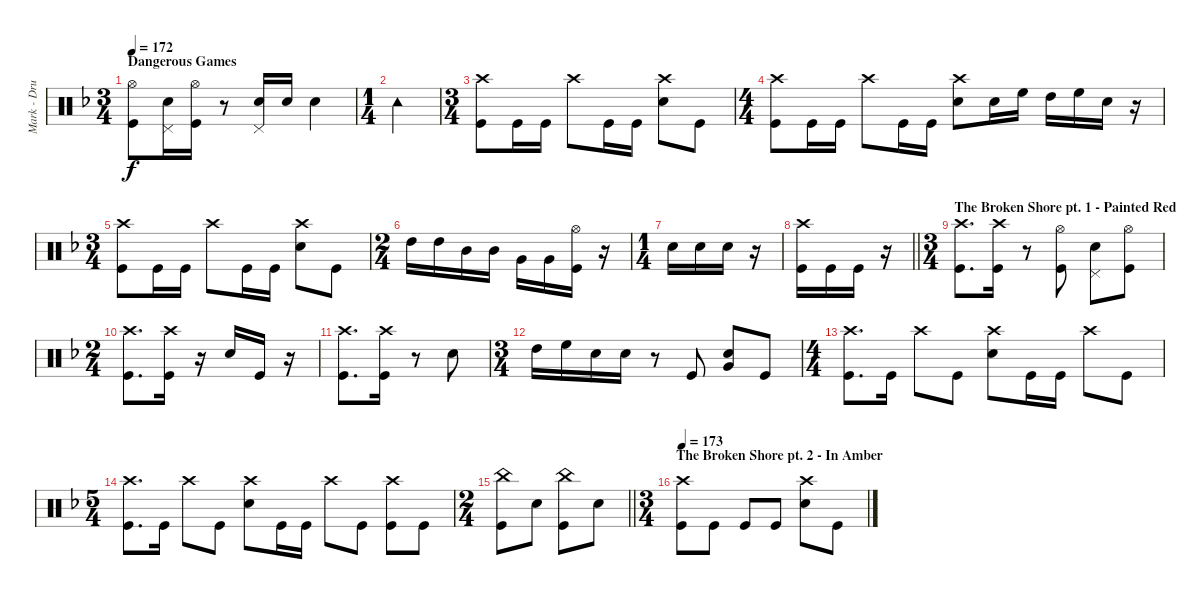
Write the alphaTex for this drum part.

\track ("Mark - Drums" "Mark - Dru") {instrument percussion}
\staff {score}
\articulation defaults
\ts (3 4)
\section ("" "Dangerous Games")
\tempo 172
\clef neutral
\ks dminor
("Kick (hit)" "Hi-Hat (open)").8{dy f} ("Snare (hit) 2" "Pedal Hi-Hat (hit)").16 ("Kick (hit)" "Hi-Hat (open)").16 r.8 ("Snare (hit) 2" "Pedal Hi-Hat (hit)").16 "Snare (hit) 2".16 "Snare (hit) 2".4 |
\ts (1 4)
"Tambourine (hit)".4 |
\ts (3 4)
("Crash high (hit)" "Kick (hit)").8 "Kick (hit)".16 "Kick (hit)".16 "Crash high (hit)".8 "Kick (hit)".16 "Kick (hit)".16 ("Crash high (hit)" "Snare (hit) 2").8 "Kick (hit)".8 |
\ts (4 4)
("Kick (hit)" "Crash high (hit)").8 "Kick (hit)".16 "Kick (hit)".16 "Crash high (hit)".8 "Kick (hit)".16 "Kick (hit)".16 ("Crash high (hit)" "Snare (hit) 2").8 "Snare (hit) 2".16 "High Floor Tom (hit)".16 "High Tom (hit)".16 "High Floor Tom (hit)".16 "Snare (hit) 2".16 r.16 |
\ts (3 4)
("Crash high (hit)" "Kick (hit)").8 "Kick (hit)".16 "Kick (hit)".16 "Crash high (hit)".8 "Kick (hit)".16 "Kick (hit)".16 ("Crash high (hit)" "Snare (hit) 2").8 "Kick (hit)".8 |
\ts (2 4)
"High Tom (hit)".16 "High Tom (hit)".16 "Mid Tom (hit)".16 "Mid Tom (hit)".16 "Very Low Tom (hit)".16 "Very Low Tom (hit)".16 ("Kick (hit)" "Hi-Hat (open)").16 r.16 |
\ts (1 4)
"Snare (hit) 2".16 "Snare (hit) 2".16 "Snare (hit) 2".16 r.16 |
\barLineRight lightlight
("Kick (hit)" "Crash high (hit)").16 "Kick (hit)".16 "Kick (hit)".16 r.16 |
\ts (3 4)
\section ("" "The Broken Shore pt. 1 - Painted Red")
("Kick (hit)" "Crash high (hit)").8{d} ("Kick (hit)" "Crash high (hit)").16 r.8 ("Kick (hit)" "Hi-Hat (open)").8 ("Snare (hit) 2" "Pedal Hi-Hat (hit)").8 ("Kick (hit)" "Hi-Hat (open)").8 |
\ts (2 4)
("Kick (hit)" "Crash high (hit)").8{d} ("Kick (hit)" "Crash high (hit)").16 r.16 "Snare (hit) 2".16 "Kick (hit)".16 r.16 |
("Kick (hit)" "Crash high (hit)").8{d} ("Kick (hit)" "Crash high (hit)").16 r.8 "Snare (hit) 2".8 |
\ts (3 4)
"High Tom (hit)".16 "High Floor Tom (hit)".16 "Snare (hit) 2".16 "Snare (hit) 2".16 r.8 "Kick (hit)".8 ("Snare (hit) 2" "Very Low Tom (hit)").8 "Kick (hit)".8 |
\ts (4 4)
("Crash high (hit)" "Kick (hit)").8{d} "Kick (hit)".16 "Crash high (hit)".8 "Kick (hit)".8 ("Snare (hit) 2" "Crash high (hit)").8 "Kick (hit)".16 "Kick (hit)".16 "Crash high (hit)".8 "Kick (hit)".8 |
\ts (5 4)
("Crash high (hit)" "Kick (hit)").8{d} "Kick (hit)".16 "Crash high (hit)".8 "Kick (hit)".8 ("Snare (hit) 2" "Crash high (hit)").8 "Kick (hit)".16 "Kick (hit)".16 "Crash high (hit)".8 "Kick (hit)".8 ("Kick (hit)" "Crash high (hit)").8 "Kick (hit)".8 |
\ts (2 4)
\barLineRight lightlight
("China (hit)" "Kick (hit)").8 "Snare (hit) 2".8 ("Kick (hit)" "China (hit)").8 "Snare (hit) 2".8 |
\ts (3 4)
\section ("" "The Broken Shore pt. 2 - In Amber")
\tempo 173
("Kick (hit)" "Crash high (hit)").8 "Kick (hit)".8 "Kick (hit)".8 "Kick (hit)".8 ("Snare (hit) 2" "Crash high (hit)").8 "Kick (hit)".8
